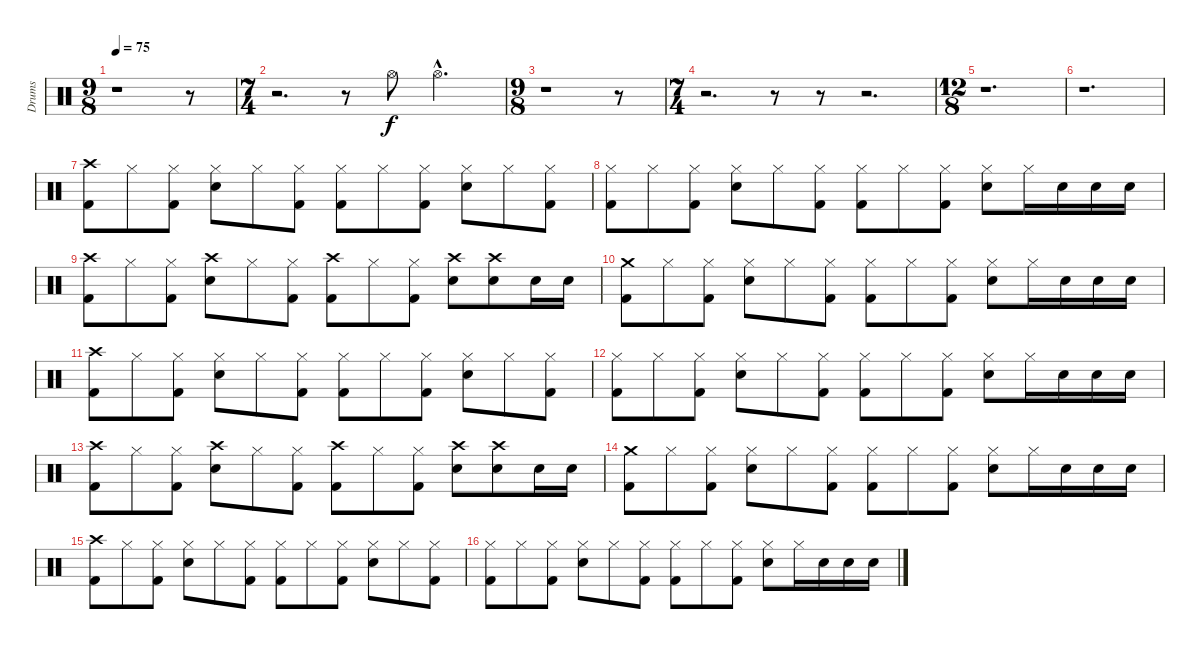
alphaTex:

\track ("Drums" "Drums") {instrument percussion}
\staff {score}
\articulation defaults
\ts (9 8)
\tempo 75
\clef neutral
\ks c
r.1{dy f} r.8 |
\ts (7 4)
r.2{d} r.8 "Hi-Hat (open)".8 "Hi-Hat (open)"{hac}.2{d} |
\ts (9 8)
r.1 r.8 |
\ts (7 4)
r.2{d} r.8 r.8 r.2{d} |
\ts (12 8)
r.1{d} |
r.1{d} |
("Crash high (hit)" "Kick (hit) 2").8{volume 12} "Hi-Hat (closed)".8 ("Hi-Hat (closed)" "Kick (hit) 2").8 ("Hi-Hat (closed)" "Electric Snare (hit)").8 "Hi-Hat (closed)".8 ("Hi-Hat (closed)" "Kick (hit) 2").8 ("Hi-Hat (closed)" "Kick (hit) 2").8 "Hi-Hat (closed)".8 ("Hi-Hat (closed)" "Kick (hit) 2").8 ("Hi-Hat (closed)" "Electric Snare (hit)").8 "Hi-Hat (closed)".8 ("Hi-Hat (closed)" "Kick (hit) 2").8 |
("Hi-Hat (closed)" "Kick (hit) 2").8 "Hi-Hat (closed)".8 ("Hi-Hat (closed)" "Kick (hit) 2").8 ("Hi-Hat (closed)" "Electric Snare (hit)").8 "Hi-Hat (closed)".8 ("Hi-Hat (closed)" "Kick (hit) 2").8 ("Hi-Hat (closed)" "Kick (hit) 2").8 "Hi-Hat (closed)".8 ("Hi-Hat (closed)" "Kick (hit) 2").8 ("Hi-Hat (closed)" "Electric Snare (hit)").8 "Hi-Hat (closed)".16 "Electric Snare (hit)".16 "Electric Snare (hit)".16 "Electric Snare (hit)".16 |
("Crash high (hit)" "Kick (hit) 2").8 "Hi-Hat (closed)".8 ("Hi-Hat (closed)" "Kick (hit) 2").8 ("Crash high (hit)" "Electric Snare (hit)").8 "Hi-Hat (closed)".8 ("Hi-Hat (closed)" "Kick (hit) 2").8 ("Crash high (hit)" "Kick (hit) 2").8 "Hi-Hat (closed)".8 ("Hi-Hat (closed)" "Kick (hit) 2").8 ("Crash high (hit)" "Electric Snare (hit)").8 ("Crash high (hit)" "Electric Snare (hit)").8 "Electric Snare (hit)".16 "Electric Snare (hit)".16 |
("Crash medium (hit)" "Kick (hit) 2").8 "Hi-Hat (closed)".8 ("Hi-Hat (closed)" "Kick (hit) 2").8 ("Hi-Hat (closed)" "Electric Snare (hit)").8 "Hi-Hat (closed)".8 ("Hi-Hat (closed)" "Kick (hit) 2").8 ("Hi-Hat (closed)" "Kick (hit) 2").8 "Hi-Hat (closed)".8 ("Hi-Hat (closed)" "Kick (hit) 2").8 ("Hi-Hat (closed)" "Electric Snare (hit)").8 "Hi-Hat (closed)".16 "Electric Snare (hit)".16 "Electric Snare (hit)".16 "Electric Snare (hit)".16 |
("Crash high (hit)" "Kick (hit) 2").8 "Hi-Hat (closed)".8 ("Hi-Hat (closed)" "Kick (hit) 2").8 ("Hi-Hat (closed)" "Electric Snare (hit)").8 "Hi-Hat (closed)".8 ("Hi-Hat (closed)" "Kick (hit) 2").8 ("Hi-Hat (closed)" "Kick (hit) 2").8 "Hi-Hat (closed)".8 ("Hi-Hat (closed)" "Kick (hit) 2").8 ("Hi-Hat (closed)" "Electric Snare (hit)").8 "Hi-Hat (closed)".8 ("Hi-Hat (closed)" "Kick (hit) 2").8 |
("Hi-Hat (closed)" "Kick (hit) 2").8 "Hi-Hat (closed)".8 ("Hi-Hat (closed)" "Kick (hit) 2").8 ("Hi-Hat (closed)" "Electric Snare (hit)").8 "Hi-Hat (closed)".8 ("Hi-Hat (closed)" "Kick (hit) 2").8 ("Hi-Hat (closed)" "Kick (hit) 2").8 "Hi-Hat (closed)".8 ("Hi-Hat (closed)" "Kick (hit) 2").8 ("Hi-Hat (closed)" "Electric Snare (hit)").8 "Hi-Hat (closed)".16 "Electric Snare (hit)".16 "Electric Snare (hit)".16 "Electric Snare (hit)".16 |
("Crash high (hit)" "Kick (hit) 2").8 "Hi-Hat (closed)".8 ("Hi-Hat (closed)" "Kick (hit) 2").8 ("Crash high (hit)" "Electric Snare (hit)").8 "Hi-Hat (closed)".8 ("Hi-Hat (closed)" "Kick (hit) 2").8 ("Crash high (hit)" "Kick (hit) 2").8 "Hi-Hat (closed)".8 ("Hi-Hat (closed)" "Kick (hit) 2").8 ("Crash high (hit)" "Electric Snare (hit)").8 ("Crash high (hit)" "Electric Snare (hit)").8 "Electric Snare (hit)".16 "Electric Snare (hit)".16 |
("Crash medium (hit)" "Kick (hit) 2").8 "Hi-Hat (closed)".8 ("Hi-Hat (closed)" "Kick (hit) 2").8 ("Hi-Hat (closed)" "Electric Snare (hit)").8 "Hi-Hat (closed)".8 ("Hi-Hat (closed)" "Kick (hit) 2").8 ("Hi-Hat (closed)" "Kick (hit) 2").8 "Hi-Hat (closed)".8 ("Hi-Hat (closed)" "Kick (hit) 2").8 ("Hi-Hat (closed)" "Electric Snare (hit)").8 "Hi-Hat (closed)".16 "Electric Snare (hit)".16 "Electric Snare (hit)".16 "Electric Snare (hit)".16 |
("Crash high (hit)" "Kick (hit) 2").8 "Hi-Hat (closed)".8 ("Hi-Hat (closed)" "Kick (hit) 2").8 ("Hi-Hat (closed)" "Electric Snare (hit)").8 "Hi-Hat (closed)".8 ("Hi-Hat (closed)" "Kick (hit) 2").8 ("Hi-Hat (closed)" "Kick (hit) 2").8 "Hi-Hat (closed)".8 ("Hi-Hat (closed)" "Kick (hit) 2").8 ("Hi-Hat (closed)" "Electric Snare (hit)").8 "Hi-Hat (closed)".8 ("Hi-Hat (closed)" "Kick (hit) 2").8 |
("Hi-Hat (closed)" "Kick (hit) 2").8 "Hi-Hat (closed)".8 ("Hi-Hat (closed)" "Kick (hit) 2").8 ("Hi-Hat (closed)" "Electric Snare (hit)").8 "Hi-Hat (closed)".8 ("Hi-Hat (closed)" "Kick (hit) 2").8 ("Hi-Hat (closed)" "Kick (hit) 2").8 "Hi-Hat (closed)".8 ("Hi-Hat (closed)" "Kick (hit) 2").8 ("Hi-Hat (closed)" "Electric Snare (hit)").8 "Hi-Hat (closed)".16 "Electric Snare (hit)".16 "Electric Snare (hit)".16 "Electric Snare (hit)".16
